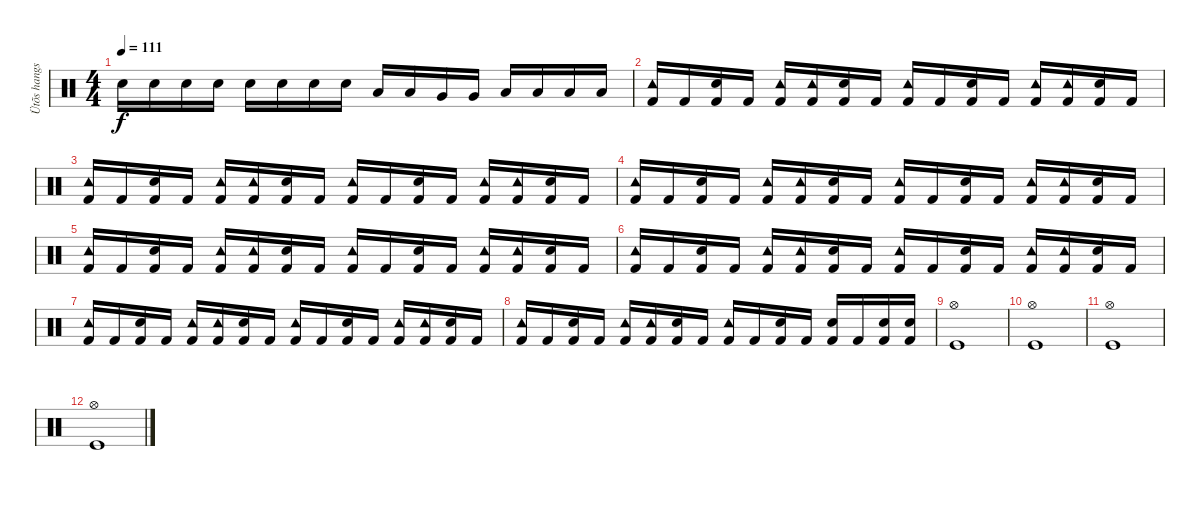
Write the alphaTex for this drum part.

\track ("Ütõs hangszer" "Ütõs hangs") {instrument percussion}
\staff {score}
\articulation defaults
\ts (4 4)
\tempo 111
\clef neutral
\ks c "Electric Snare (hit)".16{dy f} "Electric Snare (hit)".16 "Electric Snare (hit)".16 "Electric Snare (hit)".16 "Electric Snare (hit)".16 "Electric Snare (hit)".16 "Electric Snare (hit)".16 "Electric Snare (hit)".16 "Low Tom (hit)".16 "Low Tom (hit)".16 "Very Low Tom (hit)".16 "Very Low Tom (hit)".16 "Low Floor Tom (hit)".16 "Low Floor Tom (hit)".16 "Low Floor Tom (hit)".16 "Low Floor Tom (hit)".16
|
("Kick (hit) 2" "Tambourine (hit)").16 "Kick (hit) 2".16 ("Kick (hit) 2" "Electric Snare (hit)").16 "Kick (hit) 2".16 ("Kick (hit) 2" "Tambourine (hit)").16 ("Kick (hit) 2" "Tambourine (hit)").16 ("Kick (hit) 2" "Electric Snare (hit)").16 "Kick (hit) 2".16 ("Kick (hit) 2" "Tambourine (hit)").16 "Kick (hit) 2".16 ("Kick (hit) 2" "Electric Snare (hit)").16 "Kick (hit) 2".16 ("Kick (hit) 2" "Tambourine (hit)").16 ("Kick (hit) 2" "Tambourine (hit)").16 ("Kick (hit) 2" "Electric Snare (hit)").16 "Kick (hit) 2".16 |
("Kick (hit) 2" "Tambourine (hit)").16 "Kick (hit) 2".16 ("Kick (hit) 2" "Electric Snare (hit)").16 "Kick (hit) 2".16 ("Kick (hit) 2" "Tambourine (hit)").16 ("Kick (hit) 2" "Tambourine (hit)").16 ("Kick (hit) 2" "Electric Snare (hit)").16 "Kick (hit) 2".16 ("Kick (hit) 2" "Tambourine (hit)").16 "Kick (hit) 2".16 ("Kick (hit) 2" "Electric Snare (hit)").16 "Kick (hit) 2".16 ("Kick (hit) 2" "Tambourine (hit)").16 ("Kick (hit) 2" "Tambourine (hit)").16 ("Kick (hit) 2" "Electric Snare (hit)").16 "Kick (hit) 2".16 |
("Kick (hit) 2" "Tambourine (hit)").16 "Kick (hit) 2".16 ("Kick (hit) 2" "Electric Snare (hit)").16 "Kick (hit) 2".16 ("Kick (hit) 2" "Tambourine (hit)").16 ("Kick (hit) 2" "Tambourine (hit)").16 ("Kick (hit) 2" "Electric Snare (hit)").16 "Kick (hit) 2".16 ("Kick (hit) 2" "Tambourine (hit)").16 "Kick (hit) 2".16 ("Kick (hit) 2" "Electric Snare (hit)").16 "Kick (hit) 2".16 ("Kick (hit) 2" "Tambourine (hit)").16 ("Kick (hit) 2" "Tambourine (hit)").16 ("Kick (hit) 2" "Electric Snare (hit)").16 "Kick (hit) 2".16 |
("Kick (hit) 2" "Tambourine (hit)").16 "Kick (hit) 2".16 ("Kick (hit) 2" "Electric Snare (hit)").16 "Kick (hit) 2".16 ("Kick (hit) 2" "Tambourine (hit)").16 ("Kick (hit) 2" "Tambourine (hit)").16 ("Kick (hit) 2" "Electric Snare (hit)").16 "Kick (hit) 2".16 ("Kick (hit) 2" "Tambourine (hit)").16 "Kick (hit) 2".16 ("Kick (hit) 2" "Electric Snare (hit)").16 "Kick (hit) 2".16 ("Kick (hit) 2" "Tambourine (hit)").16 ("Kick (hit) 2" "Tambourine (hit)").16 ("Kick (hit) 2" "Electric Snare (hit)").16 "Kick (hit) 2".16 |
("Kick (hit) 2" "Tambourine (hit)").16 "Kick (hit) 2".16 ("Kick (hit) 2" "Electric Snare (hit)").16 "Kick (hit) 2".16 ("Kick (hit) 2" "Tambourine (hit)").16 ("Kick (hit) 2" "Tambourine (hit)").16 ("Kick (hit) 2" "Electric Snare (hit)").16 "Kick (hit) 2".16 ("Kick (hit) 2" "Tambourine (hit)").16 "Kick (hit) 2".16 ("Kick (hit) 2" "Electric Snare (hit)").16 "Kick (hit) 2".16 ("Kick (hit) 2" "Tambourine (hit)").16 ("Kick (hit) 2" "Tambourine (hit)").16 ("Kick (hit) 2" "Electric Snare (hit)").16 "Kick (hit) 2".16 |
("Kick (hit) 2" "Tambourine (hit)").16 "Kick (hit) 2".16 ("Kick (hit) 2" "Electric Snare (hit)").16 "Kick (hit) 2".16 ("Kick (hit) 2" "Tambourine (hit)").16 ("Kick (hit) 2" "Tambourine (hit)").16 ("Kick (hit) 2" "Electric Snare (hit)").16 "Kick (hit) 2".16 ("Kick (hit) 2" "Tambourine (hit)").16 "Kick (hit) 2".16 ("Kick (hit) 2" "Electric Snare (hit)").16 "Kick (hit) 2".16 ("Kick (hit) 2" "Tambourine (hit)").16 ("Kick (hit) 2" "Tambourine (hit)").16 ("Kick (hit) 2" "Electric Snare (hit)").16 "Kick (hit) 2".16 |
("Kick (hit) 2" "Tambourine (hit)").16 "Kick (hit) 2".16 ("Kick (hit) 2" "Electric Snare (hit)").16 "Kick (hit) 2".16 ("Kick (hit) 2" "Tambourine (hit)").16 ("Kick (hit) 2" "Tambourine (hit)").16 ("Kick (hit) 2" "Electric Snare (hit)").16 "Kick (hit) 2".16 ("Kick (hit) 2" "Tambourine (hit)").16 "Kick (hit) 2".16 ("Kick (hit) 2" "Electric Snare (hit)").16 "Kick (hit) 2".16 ("Kick (hit) 2" "Electric Snare (hit)").16 "Kick (hit) 2".16 ("Kick (hit) 2" "Electric Snare (hit)").16 ("Kick (hit) 2" "Electric Snare (hit)").16 |
("Hi-Hat (open)" "Kick (hit)").1 |
("Hi-Hat (open)" "Kick (hit)").1 |
("Hi-Hat (open)" "Kick (hit)").1 |
("Hi-Hat (open)" "Kick (hit)").1
